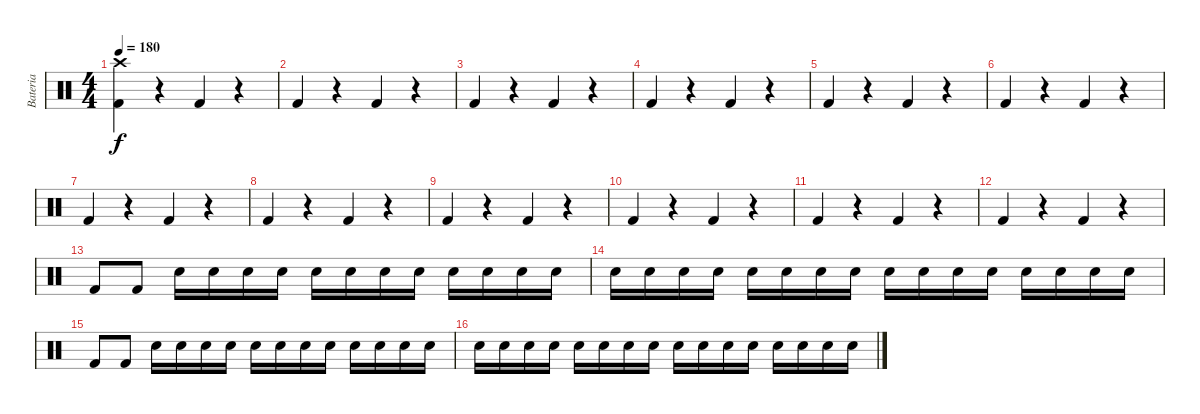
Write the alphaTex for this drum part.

\track ("Bateria" "Bateria") {instrument percussion}
\staff {score}
\articulation defaults
\ts (4 4)
\tempo 180
\clef neutral
\ks c
("Kick (hit) 2" "Crash high (hit)").4{dy f} r.4 "Kick (hit) 2".4 r.4 |
"Kick (hit) 2".4 r.4 "Kick (hit) 2".4 r.4 |
"Kick (hit) 2".4 r.4 "Kick (hit) 2".4 r.4 |
"Kick (hit) 2".4 r.4 "Kick (hit) 2".4 r.4 |
"Kick (hit) 2".4 r.4 "Kick (hit) 2".4 r.4 |
"Kick (hit) 2".4 r.4 "Kick (hit) 2".4 r.4 |
"Kick (hit) 2".4 r.4 "Kick (hit) 2".4 r.4 |
"Kick (hit) 2".4 r.4 "Kick (hit) 2".4 r.4 |
"Kick (hit) 2".4 r.4 "Kick (hit) 2".4 r.4 |
"Kick (hit) 2".4 r.4 "Kick (hit) 2".4 r.4 |
"Kick (hit) 2".4 r.4 "Kick (hit) 2".4 r.4 |
"Kick (hit) 2".4 r.4 "Kick (hit) 2".4 r.4 |
"Kick (hit) 2".8 "Kick (hit) 2".8 "Electric Snare (hit)".16 "Electric Snare (hit)".16 "Electric Snare (hit)".16 "Electric Snare (hit)".16 "Electric Snare (hit)".16 "Electric Snare (hit)".16 "Electric Snare (hit)".16 "Electric Snare (hit)".16 "Electric Snare (hit)".16 "Electric Snare (hit)".16 "Electric Snare (hit)".16 "Electric Snare (hit)".16 |
"Electric Snare (hit)".16 "Electric Snare (hit)".16 "Electric Snare (hit)".16 "Electric Snare (hit)".16 "Electric Snare (hit)".16 "Electric Snare (hit)".16 "Electric Snare (hit)".16 "Electric Snare (hit)".16 "Electric Snare (hit)".16 "Electric Snare (hit)".16 "Electric Snare (hit)".16 "Electric Snare (hit)".16 "Electric Snare (hit)".16 "Electric Snare (hit)".16 "Electric Snare (hit)".16 "Electric Snare (hit)".16 |
"Kick (hit) 2".8 "Kick (hit) 2".8 "Electric Snare (hit)".16 "Electric Snare (hit)".16 "Electric Snare (hit)".16 "Electric Snare (hit)".16 "Electric Snare (hit)".16 "Electric Snare (hit)".16 "Electric Snare (hit)".16 "Electric Snare (hit)".16 "Electric Snare (hit)".16 "Electric Snare (hit)".16 "Electric Snare (hit)".16 "Electric Snare (hit)".16 |
"Electric Snare (hit)".16 "Electric Snare (hit)".16 "Electric Snare (hit)".16 "Electric Snare (hit)".16 "Electric Snare (hit)".16 "Electric Snare (hit)".16 "Electric Snare (hit)".16 "Electric Snare (hit)".16 "Electric Snare (hit)".16 "Electric Snare (hit)".16 "Electric Snare (hit)".16 "Electric Snare (hit)".16 "Electric Snare (hit)".16 "Electric Snare (hit)".16 "Electric Snare (hit)".16 "Electric Snare (hit)".16
